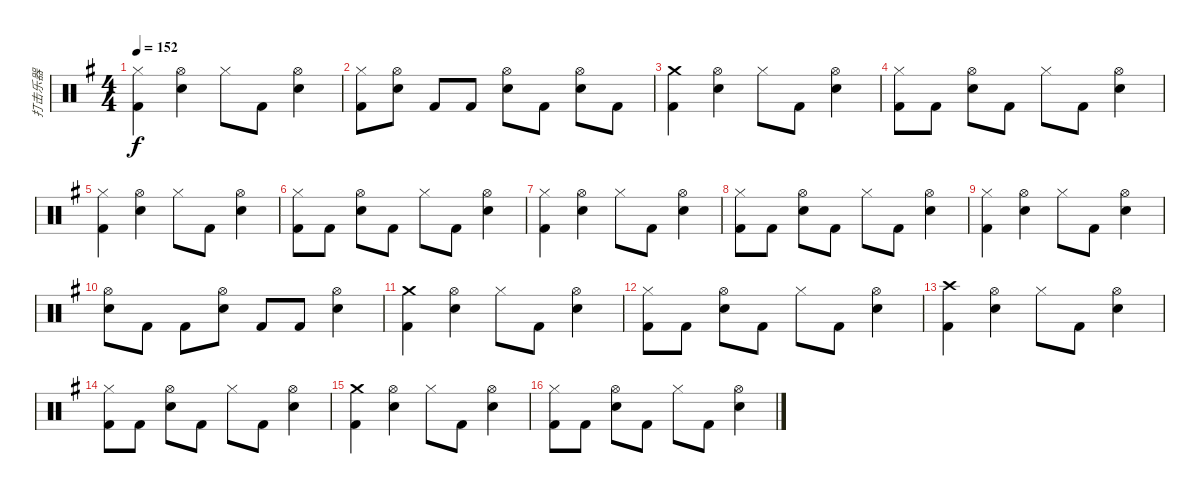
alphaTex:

\track ("打击乐器" "打击乐器") {instrument percussion}
\staff {score}
\articulation defaults
\ts (4 4)
\tempo 152
\clef neutral
\ks g
("Hi-Hat (closed)" "Kick (hit) 2").4{dy f} ("Hi-Hat (open)" "Metronome (bell)").4 "Hi-Hat (closed)".8 "Kick (hit) 2".8 ("Hi-Hat (open)" "Metronome (bell)").4 |
("Hi-Hat (closed)" "Kick (hit) 2").8 ("Hi-Hat (open)" "Metronome (bell)").8 "Kick (hit) 2".8 "Kick (hit) 2".8 ("Hi-Hat (open)" "Metronome (bell)").8 "Kick (hit) 2".8 ("Hi-Hat (open)" "Metronome (bell)").8 "Kick (hit) 2".8 |
("Crash medium (hit)" "Kick (hit) 2").4 ("Hi-Hat (open)" "Metronome (bell)").4 "Hi-Hat (closed)".8 "Kick (hit) 2".8 ("Hi-Hat (open)" "Metronome (bell)").4 |
("Hi-Hat (closed)" "Kick (hit) 2").8 "Kick (hit) 2".8 ("Hi-Hat (open)" "Metronome (bell)").8 "Kick (hit) 2".8 "Hi-Hat (closed)".8 "Kick (hit) 2".8 ("Hi-Hat (open)" "Metronome (bell)").4 |
("Hi-Hat (closed)" "Kick (hit) 2").4 ("Hi-Hat (open)" "Metronome (bell)").4 "Hi-Hat (closed)".8 "Kick (hit) 2".8 ("Hi-Hat (open)" "Metronome (bell)").4 |
("Hi-Hat (closed)" "Kick (hit) 2").8 "Kick (hit) 2".8 ("Hi-Hat (open)" "Metronome (bell)").8 "Kick (hit) 2".8 "Hi-Hat (closed)".8 "Kick (hit) 2".8 ("Hi-Hat (open)" "Metronome (bell)").4 |
("Hi-Hat (closed)" "Kick (hit) 2").4 ("Hi-Hat (open)" "Metronome (bell)").4 "Hi-Hat (closed)".8 "Kick (hit) 2".8 ("Hi-Hat (open)" "Metronome (bell)").4 |
("Hi-Hat (closed)" "Kick (hit) 2").8 "Kick (hit) 2".8 ("Hi-Hat (open)" "Metronome (bell)").8 "Kick (hit) 2".8 "Hi-Hat (closed)".8 "Kick (hit) 2".8 ("Hi-Hat (open)" "Metronome (bell)").4 |
("Hi-Hat (closed)" "Kick (hit) 2").4 ("Hi-Hat (open)" "Metronome (bell)").4 "Hi-Hat (closed)".8 "Kick (hit) 2".8 ("Hi-Hat (open)" "Metronome (bell)").4 |
("Hi-Hat (open)" "Metronome (bell)").8 "Kick (hit) 2".8 "Kick (hit) 2".8 ("Hi-Hat (open)" "Metronome (bell)").8 "Kick (hit) 2".8 "Kick (hit) 2".8 ("Hi-Hat (open)" "Metronome (bell)").4 |
("Crash medium (hit)" "Kick (hit) 2").4 ("Hi-Hat (open)" "Metronome (bell)").4 "Hi-Hat (closed)".8 "Kick (hit) 2".8 ("Hi-Hat (open)" "Metronome (bell)").4 |
("Hi-Hat (closed)" "Kick (hit) 2").8 "Kick (hit) 2".8 ("Hi-Hat (open)" "Metronome (bell)").8 "Kick (hit) 2".8 "Hi-Hat (closed)".8 "Kick (hit) 2".8 ("Hi-Hat (open)" "Metronome (bell)").4 |
("Crash high (hit)" "Kick (hit) 2").4 ("Hi-Hat (open)" "Metronome (bell)").4 "Hi-Hat (closed)".8 "Kick (hit) 2".8 ("Hi-Hat (open)" "Metronome (bell)").4 |
("Hi-Hat (closed)" "Kick (hit) 2").8 "Kick (hit) 2".8 ("Hi-Hat (open)" "Metronome (bell)").8 "Kick (hit) 2".8 "Hi-Hat (closed)".8 "Kick (hit) 2".8 ("Hi-Hat (open)" "Metronome (bell)").4 |
("Crash medium (hit)" "Kick (hit) 2").4 ("Hi-Hat (open)" "Metronome (bell)").4 "Hi-Hat (closed)".8 "Kick (hit) 2".8 ("Hi-Hat (open)" "Metronome (bell)").4 |
("Hi-Hat (closed)" "Kick (hit) 2").8 "Kick (hit) 2".8 ("Hi-Hat (open)" "Metronome (bell)").8 "Kick (hit) 2".8 "Hi-Hat (closed)".8 "Kick (hit) 2".8 ("Hi-Hat (open)" "Metronome (bell)").4
